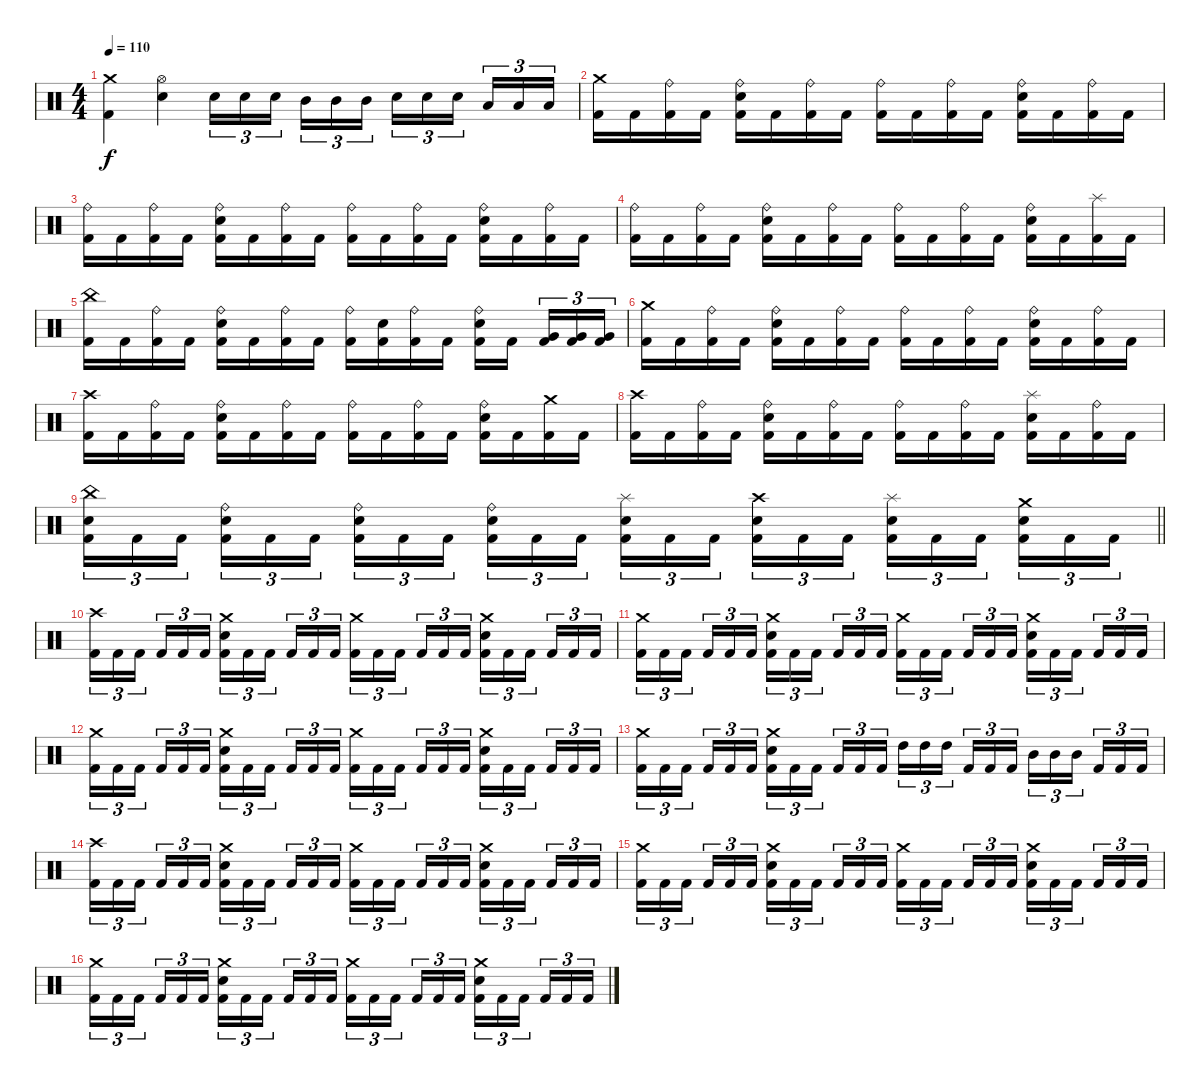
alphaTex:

\track "" {instrument percussion}
\staff {score}
\articulation defaults
\ts (4 4)
\tempo 110
\clef neutral
\ks c
("Crash medium (hit)" "Kick (hit) 2").4{dy f} ("Hi-Hat (open)" "Electric Snare (hit)").4 "Electric Snare (hit)".16{tu (3 2)} "Electric Snare (hit)".16{tu (3 2)} "Electric Snare (hit)".16{tu (3 2) beam splitsecondary} "Mid Tom (hit)".16{tu (3 2)} "Mid Tom (hit)".16{tu (3 2)} "Mid Tom (hit)".16{tu (3 2)} "Electric Snare (hit)".16{tu (3 2)} "Electric Snare (hit)".16{tu (3 2)} "Electric Snare (hit)".16{tu (3 2) beam splitsecondary} "Low Tom (hit)".16{tu (3 2)} "Low Tom (hit)".16{tu (3 2)} "Low Tom (hit)".16{tu (3 2)} |
("Crash medium (hit)" "Kick (hit) 2").16 "Kick (hit) 2".16 ("Ride (bell)" "Kick (hit) 2").16 "Kick (hit) 2".16 ("Ride (bell)" "Electric Snare (hit)" "Kick (hit) 2").16 "Kick (hit) 2".16 ("Ride (bell)" "Kick (hit) 2").16 "Kick (hit) 2".16 ("Ride (bell)" "Kick (hit) 2").16 "Kick (hit) 2".16 ("Ride (bell)" "Kick (hit) 2").16 "Kick (hit) 2".16 ("Ride (bell)" "Electric Snare (hit)" "Kick (hit) 2").16 "Kick (hit) 2".16 ("Ride (bell)" "Kick (hit) 2").16 "Kick (hit) 2".16 |
("Ride (bell)" "Kick (hit) 2").16 "Kick (hit) 2".16 ("Ride (bell)" "Kick (hit) 2").16 "Kick (hit) 2".16 ("Ride (bell)" "Electric Snare (hit)" "Kick (hit) 2").16 "Kick (hit) 2".16 ("Ride (bell)" "Kick (hit) 2").16 "Kick (hit) 2".16 ("Ride (bell)" "Kick (hit) 2").16 "Kick (hit) 2".16 ("Ride (bell)" "Kick (hit) 2").16 "Kick (hit) 2".16 ("Ride (bell)" "Electric Snare (hit)" "Kick (hit) 2").16 "Kick (hit) 2".16 ("Ride (bell)" "Kick (hit) 2").16 "Kick (hit) 2".16 |
("Ride (bell)" "Kick (hit) 2").16 "Kick (hit) 2".16 ("Ride (bell)" "Kick (hit) 2").16 "Kick (hit) 2".16 ("Ride (bell)" "Electric Snare (hit)" "Kick (hit) 2").16 "Kick (hit) 2".16 ("Ride (bell)" "Kick (hit) 2").16 "Kick (hit) 2".16 ("Ride (bell)" "Kick (hit) 2").16 "Kick (hit) 2".16 ("Ride (bell)" "Kick (hit) 2").16 "Kick (hit) 2".16 ("Ride (bell)" "Electric Snare (hit)" "Kick (hit) 2").16 "Kick (hit) 2".16 ("Splash (hit)" "Kick (hit) 2").16 "Kick (hit) 2".16 |
("China (hit)" "Kick (hit) 2").16 "Kick (hit) 2".16 ("Ride (bell)" "Kick (hit) 2").16 "Kick (hit) 2".16 ("Ride (bell)" "Electric Snare (hit)" "Kick (hit) 2").16 "Kick (hit) 2".16 ("Ride (bell)" "Kick (hit) 2").16 "Kick (hit) 2".16 ("Ride (bell)" "Kick (hit) 2").16 ("Electric Snare (hit)" "Kick (hit) 2").16 ("Ride (bell)" "Kick (hit) 2").16 "Kick (hit) 2".16 ("Ride (bell)" "Electric Snare (hit)" "Kick (hit) 2").16 "Kick (hit) 2".16{beam splitsecondary} ("Very Low Tom (hit)" "Kick (hit) 2").16{tu (3 2)} ("Very Low Tom (hit)" "Kick (hit) 2").16{tu (3 2)} ("Very Low Tom (hit)" "Kick (hit) 2").16{tu (3 2)} |
("Crash medium (hit)" "Kick (hit) 2").16 "Kick (hit) 2".16 ("Ride (bell)" "Kick (hit) 2").16 "Kick (hit) 2".16 ("Ride (bell)" "Electric Snare (hit)" "Kick (hit) 2").16 "Kick (hit) 2".16 ("Ride (bell)" "Kick (hit) 2").16 "Kick (hit) 2".16 ("Ride (bell)" "Kick (hit) 2").16 "Kick (hit) 2".16 ("Ride (bell)" "Kick (hit) 2").16 "Kick (hit) 2".16 ("Ride (bell)" "Electric Snare (hit)" "Kick (hit) 2").16 "Kick (hit) 2".16 ("Ride (bell)" "Kick (hit) 2").16 "Kick (hit) 2".16 |
("Crash high (hit)" "Kick (hit) 2").16 "Kick (hit) 2".16 ("Ride (bell)" "Kick (hit) 2").16 "Kick (hit) 2".16 ("Ride (bell)" "Electric Snare (hit)" "Kick (hit) 2").16 "Kick (hit) 2".16 ("Ride (bell)" "Kick (hit) 2").16 "Kick (hit) 2".16 ("Ride (bell)" "Kick (hit) 2").16 "Kick (hit) 2".16 ("Ride (bell)" "Kick (hit) 2").16 "Kick (hit) 2".16 ("Ride (bell)" "Electric Snare (hit)" "Kick (hit) 2").16 "Kick (hit) 2".16 ("Crash medium (hit)" "Kick (hit) 2").16 "Kick (hit) 2".16 |
("Crash high (hit)" "Kick (hit) 2").16 "Kick (hit) 2".16 ("Ride (bell)" "Kick (hit) 2").16 "Kick (hit) 2".16 ("Ride (bell)" "Electric Snare (hit)" "Kick (hit) 2").16 "Kick (hit) 2".16 ("Ride (bell)" "Kick (hit) 2").16 "Kick (hit) 2".16 ("Ride (bell)" "Kick (hit) 2").16 "Kick (hit) 2".16 ("Ride (bell)" "Kick (hit) 2").16 "Kick (hit) 2".16 ("Splash (hit)" "Electric Snare (hit)" "Kick (hit) 2").16 "Kick (hit) 2".16 ("Ride (bell)" "Kick (hit) 2").16 "Kick (hit) 2".16 |
\barLineRight lightlight
("China (hit)" "Electric Snare (hit)" "Kick (hit) 2").16{tu (3 2)} "Kick (hit) 2".16{tu (3 2)} "Kick (hit) 2".16{tu (3 2) beam splitsecondary} ("Ride (bell)" "Electric Snare (hit)" "Kick (hit) 2").16{tu (3 2)} "Kick (hit) 2".16{tu (3 2)} "Kick (hit) 2".16{tu (3 2)} ("Ride (bell)" "Electric Snare (hit)" "Kick (hit) 2").16{tu (3 2)} "Kick (hit) 2".16{tu (3 2)} "Kick (hit) 2".16{tu (3 2) beam splitsecondary} ("Ride (bell)" "Electric Snare (hit)" "Kick (hit) 2").16{tu (3 2)} "Kick (hit) 2".16{tu (3 2)} "Kick (hit) 2".16{tu (3 2)} ("Splash (hit)" "Electric Snare (hit)" "Kick (hit) 2").16{tu (3 2)} "Kick (hit) 2".16{tu (3 2)} "Kick (hit) 2".16{tu (3 2) beam splitsecondary} ("Crash high (hit)" "Electric Snare (hit)" "Kick (hit) 2").16{tu (3 2)} "Kick (hit) 2".16{tu (3 2)} "Kick (hit) 2".16{tu (3 2)} ("Splash (hit)" "Electric Snare (hit)" "Kick (hit) 2").16{tu (3 2)} "Kick (hit) 2".16{tu (3 2)} "Kick (hit) 2".16{tu (3 2) beam splitsecondary} ("Crash medium (hit)" "Electric Snare (hit)" "Kick (hit) 2").16{tu (3 2)} "Kick (hit) 2".16{tu (3 2)} "Kick (hit) 2".16{tu (3 2)} |
("Crash high (hit)" "Kick (hit) 2").16{tu (3 2)} "Kick (hit) 2".16{tu (3 2)} "Kick (hit) 2".16{tu (3 2) beam splitsecondary} "Kick (hit) 2".16{tu (3 2)} "Kick (hit) 2".16{tu (3 2)} "Kick (hit) 2".16{tu (3 2)} ("Crash medium (hit)" "Electric Snare (hit)" "Kick (hit) 2").16{tu (3 2)} "Kick (hit) 2".16{tu (3 2)} "Kick (hit) 2".16{tu (3 2) beam splitsecondary} "Kick (hit) 2".16{tu (3 2)} "Kick (hit) 2".16{tu (3 2)} "Kick (hit) 2".16{tu (3 2)} ("Crash medium (hit)" "Kick (hit) 2").16{tu (3 2)} "Kick (hit) 2".16{tu (3 2)} "Kick (hit) 2".16{tu (3 2) beam splitsecondary} "Kick (hit) 2".16{tu (3 2)} "Kick (hit) 2".16{tu (3 2)} "Kick (hit) 2".16{tu (3 2)} ("Crash medium (hit)" "Electric Snare (hit)" "Kick (hit) 2").16{tu (3 2)} "Kick (hit) 2".16{tu (3 2)} "Kick (hit) 2".16{tu (3 2) beam splitsecondary} "Kick (hit) 2".16{tu (3 2)} "Kick (hit) 2".16{tu (3 2)} "Kick (hit) 2".16{tu (3 2)} |
("Crash medium (hit)" "Kick (hit) 2").16{tu (3 2)} "Kick (hit) 2".16{tu (3 2)} "Kick (hit) 2".16{tu (3 2) beam splitsecondary} "Kick (hit) 2".16{tu (3 2)} "Kick (hit) 2".16{tu (3 2)} "Kick (hit) 2".16{tu (3 2)} ("Crash medium (hit)" "Electric Snare (hit)" "Kick (hit) 2").16{tu (3 2)} "Kick (hit) 2".16{tu (3 2)} "Kick (hit) 2".16{tu (3 2) beam splitsecondary} "Kick (hit) 2".16{tu (3 2)} "Kick (hit) 2".16{tu (3 2)} "Kick (hit) 2".16{tu (3 2)} ("Crash medium (hit)" "Kick (hit) 2").16{tu (3 2)} "Kick (hit) 2".16{tu (3 2)} "Kick (hit) 2".16{tu (3 2) beam splitsecondary} "Kick (hit) 2".16{tu (3 2)} "Kick (hit) 2".16{tu (3 2)} "Kick (hit) 2".16{tu (3 2)} ("Crash medium (hit)" "Electric Snare (hit)" "Kick (hit) 2").16{tu (3 2)} "Kick (hit) 2".16{tu (3 2)} "Kick (hit) 2".16{tu (3 2) beam splitsecondary} "Kick (hit) 2".16{tu (3 2)} "Kick (hit) 2".16{tu (3 2)} "Kick (hit) 2".16{tu (3 2)} |
("Crash medium (hit)" "Kick (hit) 2").16{tu (3 2)} "Kick (hit) 2".16{tu (3 2)} "Kick (hit) 2".16{tu (3 2) beam splitsecondary} "Kick (hit) 2".16{tu (3 2)} "Kick (hit) 2".16{tu (3 2)} "Kick (hit) 2".16{tu (3 2)} ("Crash medium (hit)" "Electric Snare (hit)" "Kick (hit) 2").16{tu (3 2)} "Kick (hit) 2".16{tu (3 2)} "Kick (hit) 2".16{tu (3 2) beam splitsecondary} "Kick (hit) 2".16{tu (3 2)} "Kick (hit) 2".16{tu (3 2)} "Kick (hit) 2".16{tu (3 2)} ("Crash medium (hit)" "Kick (hit) 2").16{tu (3 2)} "Kick (hit) 2".16{tu (3 2)} "Kick (hit) 2".16{tu (3 2) beam splitsecondary} "Kick (hit) 2".16{tu (3 2)} "Kick (hit) 2".16{tu (3 2)} "Kick (hit) 2".16{tu (3 2)} ("Crash medium (hit)" "Electric Snare (hit)" "Kick (hit) 2").16{tu (3 2)} "Kick (hit) 2".16{tu (3 2)} "Kick (hit) 2".16{tu (3 2) beam splitsecondary} "Kick (hit) 2".16{tu (3 2)} "Kick (hit) 2".16{tu (3 2)} "Kick (hit) 2".16{tu (3 2)} |
("Crash medium (hit)" "Kick (hit) 2").16{tu (3 2)} "Kick (hit) 2".16{tu (3 2)} "Kick (hit) 2".16{tu (3 2) beam splitsecondary} "Kick (hit) 2".16{tu (3 2)} "Kick (hit) 2".16{tu (3 2)} "Kick (hit) 2".16{tu (3 2)} ("Crash medium (hit)" "Electric Snare (hit)" "Kick (hit) 2").16{tu (3 2)} "Kick (hit) 2".16{tu (3 2)} "Kick (hit) 2".16{tu (3 2) beam splitsecondary} "Kick (hit) 2".16{tu (3 2)} "Kick (hit) 2".16{tu (3 2)} "Kick (hit) 2".16{tu (3 2)} "High Tom (hit)".16{tu (3 2)} "High Tom (hit)".16{tu (3 2)} "High Tom (hit)".16{tu (3 2) beam splitsecondary} "Kick (hit) 2".16{tu (3 2)} "Kick (hit) 2".16{tu (3 2)} "Kick (hit) 2".16{tu (3 2)} "Mid Tom (hit)".16{tu (3 2)} "Mid Tom (hit)".16{tu (3 2)} "Mid Tom (hit)".16{tu (3 2) beam splitsecondary} "Kick (hit) 2".16{tu (3 2)} "Kick (hit) 2".16{tu (3 2)} "Kick (hit) 2".16{tu (3 2)} |
("Crash high (hit)" "Kick (hit) 2").16{tu (3 2)} "Kick (hit) 2".16{tu (3 2)} "Kick (hit) 2".16{tu (3 2) beam splitsecondary} "Kick (hit) 2".16{tu (3 2)} "Kick (hit) 2".16{tu (3 2)} "Kick (hit) 2".16{tu (3 2)} ("Crash medium (hit)" "Electric Snare (hit)" "Kick (hit) 2").16{tu (3 2)} "Kick (hit) 2".16{tu (3 2)} "Kick (hit) 2".16{tu (3 2) beam splitsecondary} "Kick (hit) 2".16{tu (3 2)} "Kick (hit) 2".16{tu (3 2)} "Kick (hit) 2".16{tu (3 2)} ("Crash medium (hit)" "Kick (hit) 2").16{tu (3 2)} "Kick (hit) 2".16{tu (3 2)} "Kick (hit) 2".16{tu (3 2) beam splitsecondary} "Kick (hit) 2".16{tu (3 2)} "Kick (hit) 2".16{tu (3 2)} "Kick (hit) 2".16{tu (3 2)} ("Crash medium (hit)" "Electric Snare (hit)" "Kick (hit) 2").16{tu (3 2)} "Kick (hit) 2".16{tu (3 2)} "Kick (hit) 2".16{tu (3 2) beam splitsecondary} "Kick (hit) 2".16{tu (3 2)} "Kick (hit) 2".16{tu (3 2)} "Kick (hit) 2".16{tu (3 2)} |
("Crash medium (hit)" "Kick (hit) 2").16{tu (3 2)} "Kick (hit) 2".16{tu (3 2)} "Kick (hit) 2".16{tu (3 2) beam splitsecondary} "Kick (hit) 2".16{tu (3 2)} "Kick (hit) 2".16{tu (3 2)} "Kick (hit) 2".16{tu (3 2)} ("Crash medium (hit)" "Electric Snare (hit)" "Kick (hit) 2").16{tu (3 2)} "Kick (hit) 2".16{tu (3 2)} "Kick (hit) 2".16{tu (3 2) beam splitsecondary} "Kick (hit) 2".16{tu (3 2)} "Kick (hit) 2".16{tu (3 2)} "Kick (hit) 2".16{tu (3 2)} ("Crash medium (hit)" "Kick (hit) 2").16{tu (3 2)} "Kick (hit) 2".16{tu (3 2)} "Kick (hit) 2".16{tu (3 2) beam splitsecondary} "Kick (hit) 2".16{tu (3 2)} "Kick (hit) 2".16{tu (3 2)} "Kick (hit) 2".16{tu (3 2)} ("Crash medium (hit)" "Electric Snare (hit)" "Kick (hit) 2").16{tu (3 2)} "Kick (hit) 2".16{tu (3 2)} "Kick (hit) 2".16{tu (3 2) beam splitsecondary} "Kick (hit) 2".16{tu (3 2)} "Kick (hit) 2".16{tu (3 2)} "Kick (hit) 2".16{tu (3 2)} |
("Crash medium (hit)" "Kick (hit) 2").16{tu (3 2)} "Kick (hit) 2".16{tu (3 2)} "Kick (hit) 2".16{tu (3 2) beam splitsecondary} "Kick (hit) 2".16{tu (3 2)} "Kick (hit) 2".16{tu (3 2)} "Kick (hit) 2".16{tu (3 2)} ("Crash medium (hit)" "Electric Snare (hit)" "Kick (hit) 2").16{tu (3 2)} "Kick (hit) 2".16{tu (3 2)} "Kick (hit) 2".16{tu (3 2) beam splitsecondary} "Kick (hit) 2".16{tu (3 2)} "Kick (hit) 2".16{tu (3 2)} "Kick (hit) 2".16{tu (3 2)} ("Crash medium (hit)" "Kick (hit) 2").16{tu (3 2)} "Kick (hit) 2".16{tu (3 2)} "Kick (hit) 2".16{tu (3 2) beam splitsecondary} "Kick (hit) 2".16{tu (3 2)} "Kick (hit) 2".16{tu (3 2)} "Kick (hit) 2".16{tu (3 2)} ("Crash medium (hit)" "Electric Snare (hit)" "Kick (hit) 2").16{tu (3 2)} "Kick (hit) 2".16{tu (3 2)} "Kick (hit) 2".16{tu (3 2) beam splitsecondary} "Kick (hit) 2".16{tu (3 2)} "Kick (hit) 2".16{tu (3 2)} "Kick (hit) 2".16{tu (3 2)}
